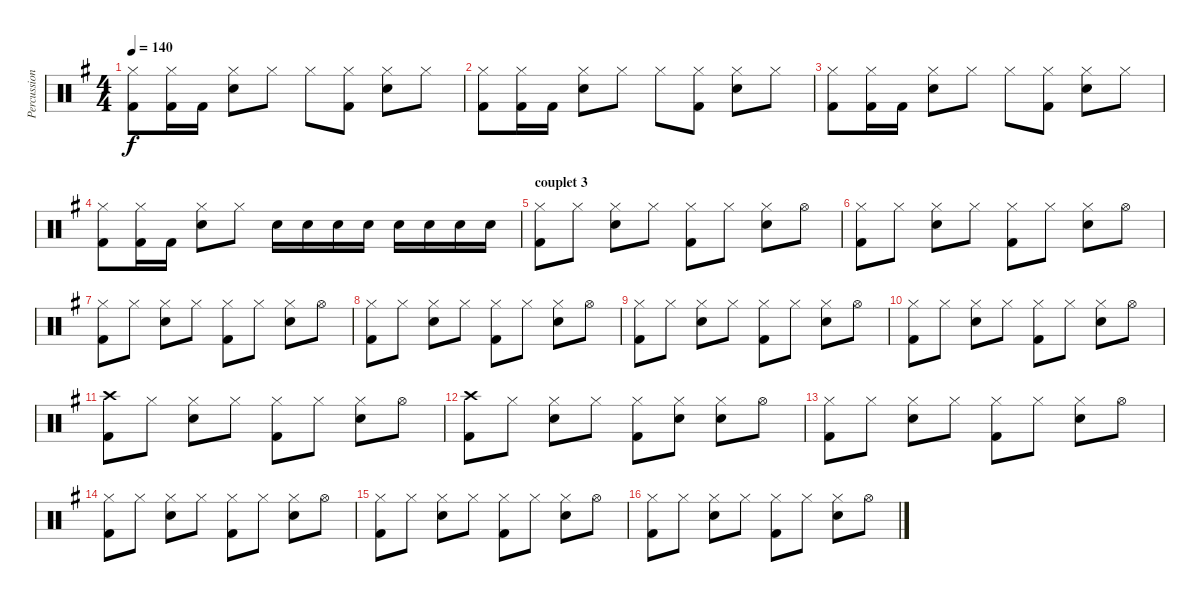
\track ("Percussions" "Percussion") {instrument percussion}
\staff {score}
\articulation defaults
\ts (4 4)
\tempo 140
\clef neutral
\ks g
("Hi-Hat (closed)" "Kick (hit) 2").8{dy f} ("Hi-Hat (closed)" "Kick (hit) 2").16 "Kick (hit) 2".16 ("Hi-Hat (closed)" "Snare (hit) 2").8 "Hi-Hat (closed)".8 "Hi-Hat (closed)".8 ("Hi-Hat (closed)" "Kick (hit) 2").8 ("Hi-Hat (closed)" "Snare (hit) 2").8 "Hi-Hat (closed)".8 |
("Hi-Hat (closed)" "Kick (hit) 2").8 ("Hi-Hat (closed)" "Kick (hit) 2").16 "Kick (hit) 2".16 ("Hi-Hat (closed)" "Snare (hit) 2").8 "Hi-Hat (closed)".8 "Hi-Hat (closed)".8 ("Hi-Hat (closed)" "Kick (hit) 2").8 ("Hi-Hat (closed)" "Snare (hit) 2").8 "Hi-Hat (closed)".8 |
("Hi-Hat (closed)" "Kick (hit) 2").8 ("Hi-Hat (closed)" "Kick (hit) 2").16 "Kick (hit) 2".16 ("Hi-Hat (closed)" "Snare (hit) 2").8 "Hi-Hat (closed)".8 "Hi-Hat (closed)".8 ("Hi-Hat (closed)" "Kick (hit) 2").8 ("Hi-Hat (closed)" "Snare (hit) 2").8 "Hi-Hat (closed)".8 |
("Hi-Hat (closed)" "Kick (hit) 2").8 ("Hi-Hat (closed)" "Kick (hit) 2").16 "Kick (hit) 2".16 ("Hi-Hat (closed)" "Snare (hit) 2").8 "Hi-Hat (closed)".8 "Snare (hit) 2".16 "Snare (hit) 2".16 "Snare (hit) 2".16 "Snare (hit) 2".16 "Snare (hit) 2".16 "Snare (hit) 2".16 "Snare (hit) 2".16 "Snare (hit) 2".16 |
\section ("" "couplet 3")
("Hi-Hat (closed)" "Kick (hit) 2").8 "Hi-Hat (closed)".8 ("Hi-Hat (closed)" "Snare (hit) 2").8 "Hi-Hat (closed)".8 ("Hi-Hat (closed)" "Kick (hit) 2").8 "Hi-Hat (closed)".8 ("Hi-Hat (closed)" "Snare (hit) 2").8 "Hi-Hat (open)".8 |
("Hi-Hat (closed)" "Kick (hit) 2").8 "Hi-Hat (closed)".8 ("Hi-Hat (closed)" "Snare (hit) 2").8 "Hi-Hat (closed)".8 ("Hi-Hat (closed)" "Kick (hit) 2").8 "Hi-Hat (closed)".8 ("Hi-Hat (closed)" "Snare (hit) 2").8 "Hi-Hat (open)".8 |
("Hi-Hat (closed)" "Kick (hit) 2").8 "Hi-Hat (closed)".8 ("Hi-Hat (closed)" "Snare (hit) 2").8 "Hi-Hat (closed)".8 ("Hi-Hat (closed)" "Kick (hit) 2").8 "Hi-Hat (closed)".8 ("Hi-Hat (closed)" "Snare (hit) 2").8 "Hi-Hat (open)".8 |
("Hi-Hat (closed)" "Kick (hit) 2").8 "Hi-Hat (closed)".8 ("Hi-Hat (closed)" "Snare (hit) 2").8 "Hi-Hat (closed)".8 ("Hi-Hat (closed)" "Kick (hit) 2").8 "Hi-Hat (closed)".8 ("Hi-Hat (closed)" "Snare (hit) 2").8 "Hi-Hat (open)".8 |
("Hi-Hat (closed)" "Kick (hit) 2").8 "Hi-Hat (closed)".8 ("Hi-Hat (closed)" "Snare (hit) 2").8 "Hi-Hat (closed)".8 ("Hi-Hat (closed)" "Kick (hit) 2").8 "Hi-Hat (closed)".8 ("Hi-Hat (closed)" "Snare (hit) 2").8 "Hi-Hat (open)".8 |
("Hi-Hat (closed)" "Kick (hit) 2").8 "Hi-Hat (closed)".8 ("Hi-Hat (closed)" "Snare (hit) 2").8 "Hi-Hat (closed)".8 ("Hi-Hat (closed)" "Kick (hit) 2").8 "Hi-Hat (closed)".8 ("Hi-Hat (closed)" "Snare (hit) 2").8 "Hi-Hat (open)".8 |
("Crash high (hit)" "Kick (hit) 2").8 "Hi-Hat (closed)".8 ("Hi-Hat (closed)" "Snare (hit) 2").8 "Hi-Hat (closed)".8 ("Hi-Hat (closed)" "Kick (hit) 2").8 "Hi-Hat (closed)".8 ("Hi-Hat (closed)" "Snare (hit) 2").8 "Hi-Hat (open)".8 |
("Crash high (hit)" "Kick (hit) 2").8 "Hi-Hat (closed)".8 ("Hi-Hat (closed)" "Snare (hit) 2").8 "Hi-Hat (closed)".8 ("Hi-Hat (closed)" "Kick (hit) 2").8 ("Hi-Hat (closed)" "Snare (hit) 2").8 ("Hi-Hat (closed)" "Snare (hit) 2").8 "Hi-Hat (open)".8 |
("Hi-Hat (closed)" "Kick (hit) 2").8 "Hi-Hat (closed)".8 ("Hi-Hat (closed)" "Snare (hit) 2").8 "Hi-Hat (closed)".8 ("Hi-Hat (closed)" "Kick (hit) 2").8 "Hi-Hat (closed)".8 ("Hi-Hat (closed)" "Snare (hit) 2").8 "Hi-Hat (open)".8 |
("Hi-Hat (closed)" "Kick (hit) 2").8 "Hi-Hat (closed)".8 ("Hi-Hat (closed)" "Snare (hit) 2").8 "Hi-Hat (closed)".8 ("Hi-Hat (closed)" "Kick (hit) 2").8 "Hi-Hat (closed)".8 ("Hi-Hat (closed)" "Snare (hit) 2").8 "Hi-Hat (open)".8 |
("Hi-Hat (closed)" "Kick (hit) 2").8 "Hi-Hat (closed)".8 ("Hi-Hat (closed)" "Snare (hit) 2").8 "Hi-Hat (closed)".8 ("Hi-Hat (closed)" "Kick (hit) 2").8 "Hi-Hat (closed)".8 ("Hi-Hat (closed)" "Snare (hit) 2").8 "Hi-Hat (open)".8 |
("Hi-Hat (closed)" "Kick (hit) 2").8 "Hi-Hat (closed)".8 ("Hi-Hat (closed)" "Snare (hit) 2").8 "Hi-Hat (closed)".8 ("Hi-Hat (closed)" "Kick (hit) 2").8 "Hi-Hat (closed)".8 ("Hi-Hat (closed)" "Snare (hit) 2").8 "Hi-Hat (open)".8
